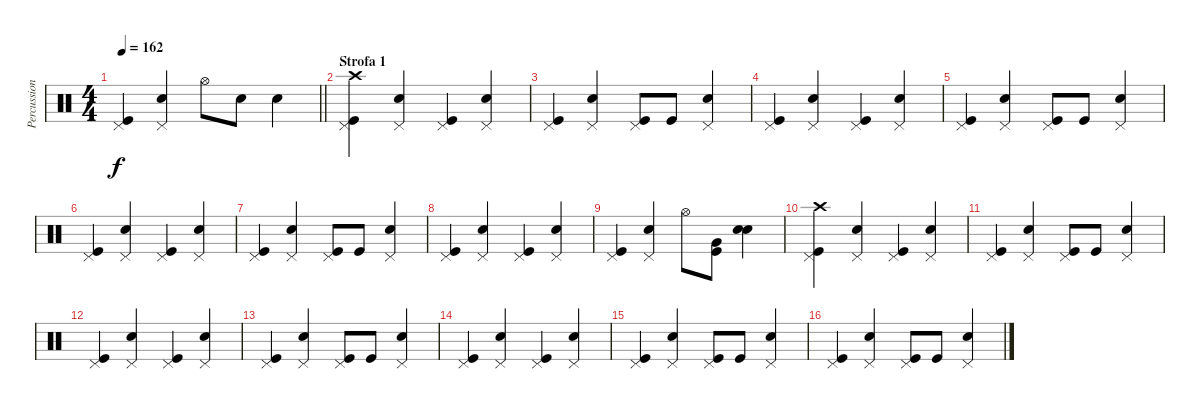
\track ("Percussioni" "Percussion") {instrument percussion}
\staff {score}
\articulation defaults
\ts (4 4)
\tempo 162
\clef neutral
\barLineRight lightlight
\ks c
("Pedal Hi-Hat (hit)" "Kick (hit)").4{dy f} ("Pedal Hi-Hat (hit)" "Snare (hit) 2").4 "Hi-Hat (open)".8 "Snare (hit) 2".8 "Snare (hit) 2".4 |
\section ("" "Strofa 1")
("Pedal Hi-Hat (hit)" "Kick (hit)" "Crash high (hit)").4 ("Pedal Hi-Hat (hit)" "Snare (hit) 2").4 ("Pedal Hi-Hat (hit)" "Kick (hit)").4 ("Pedal Hi-Hat (hit)" "Snare (hit) 2").4 |
("Pedal Hi-Hat (hit)" "Kick (hit)").4 ("Pedal Hi-Hat (hit)" "Snare (hit) 2").4 ("Pedal Hi-Hat (hit)" "Kick (hit)").8 "Kick (hit)".8 ("Pedal Hi-Hat (hit)" "Snare (hit) 2").4 |
("Pedal Hi-Hat (hit)" "Kick (hit)").4 ("Pedal Hi-Hat (hit)" "Snare (hit) 2").4 ("Pedal Hi-Hat (hit)" "Kick (hit)").4 ("Pedal Hi-Hat (hit)" "Snare (hit) 2").4 |
("Pedal Hi-Hat (hit)" "Kick (hit)").4 ("Pedal Hi-Hat (hit)" "Snare (hit) 2").4 ("Pedal Hi-Hat (hit)" "Kick (hit)").8 "Kick (hit)".8 ("Pedal Hi-Hat (hit)" "Snare (hit) 2").4 |
("Pedal Hi-Hat (hit)" "Kick (hit)").4 ("Pedal Hi-Hat (hit)" "Snare (hit) 2").4 ("Pedal Hi-Hat (hit)" "Kick (hit)").4 ("Pedal Hi-Hat (hit)" "Snare (hit) 2").4 |
("Pedal Hi-Hat (hit)" "Kick (hit)").4 ("Pedal Hi-Hat (hit)" "Snare (hit) 2").4 ("Pedal Hi-Hat (hit)" "Kick (hit)").8 "Kick (hit)".8 ("Pedal Hi-Hat (hit)" "Snare (hit) 2").4 |
("Pedal Hi-Hat (hit)" "Kick (hit)").4 ("Pedal Hi-Hat (hit)" "Snare (hit) 2").4 ("Pedal Hi-Hat (hit)" "Kick (hit)").4 ("Pedal Hi-Hat (hit)" "Snare (hit) 2").4 |
("Pedal Hi-Hat (hit)" "Kick (hit)").4 ("Pedal Hi-Hat (hit)" "Snare (hit) 2").4 "Hi-Hat (open)".8 ("Very Low Tom (hit)" "Kick (hit)").8 ("Snare (hit) 2" "Snare (hit) 2").4 |
("Pedal Hi-Hat (hit)" "Kick (hit)" "Crash high (hit)").4 ("Pedal Hi-Hat (hit)" "Snare (hit) 2").4 ("Pedal Hi-Hat (hit)" "Kick (hit)").4 ("Pedal Hi-Hat (hit)" "Snare (hit) 2").4 |
("Pedal Hi-Hat (hit)" "Kick (hit)").4 ("Pedal Hi-Hat (hit)" "Snare (hit) 2").4 ("Pedal Hi-Hat (hit)" "Kick (hit)").8 "Kick (hit)".8 ("Pedal Hi-Hat (hit)" "Snare (hit) 2").4 |
("Pedal Hi-Hat (hit)" "Kick (hit)").4 ("Pedal Hi-Hat (hit)" "Snare (hit) 2").4 ("Pedal Hi-Hat (hit)" "Kick (hit)").4 ("Pedal Hi-Hat (hit)" "Snare (hit) 2").4 |
("Pedal Hi-Hat (hit)" "Kick (hit)").4 ("Pedal Hi-Hat (hit)" "Snare (hit) 2").4 ("Pedal Hi-Hat (hit)" "Kick (hit)").8 "Kick (hit)".8 ("Pedal Hi-Hat (hit)" "Snare (hit) 2").4 |
("Pedal Hi-Hat (hit)" "Kick (hit)").4 ("Pedal Hi-Hat (hit)" "Snare (hit) 2").4 ("Pedal Hi-Hat (hit)" "Kick (hit)").4 ("Pedal Hi-Hat (hit)" "Snare (hit) 2").4 |
("Pedal Hi-Hat (hit)" "Kick (hit)").4 ("Pedal Hi-Hat (hit)" "Snare (hit) 2").4 ("Pedal Hi-Hat (hit)" "Kick (hit)").8 "Kick (hit)".8 ("Pedal Hi-Hat (hit)" "Snare (hit) 2").4 |
("Pedal Hi-Hat (hit)" "Kick (hit)").4 ("Pedal Hi-Hat (hit)" "Snare (hit) 2").4 ("Pedal Hi-Hat (hit)" "Kick (hit)").8 "Kick (hit)".8 ("Pedal Hi-Hat (hit)" "Snare (hit) 2").4
